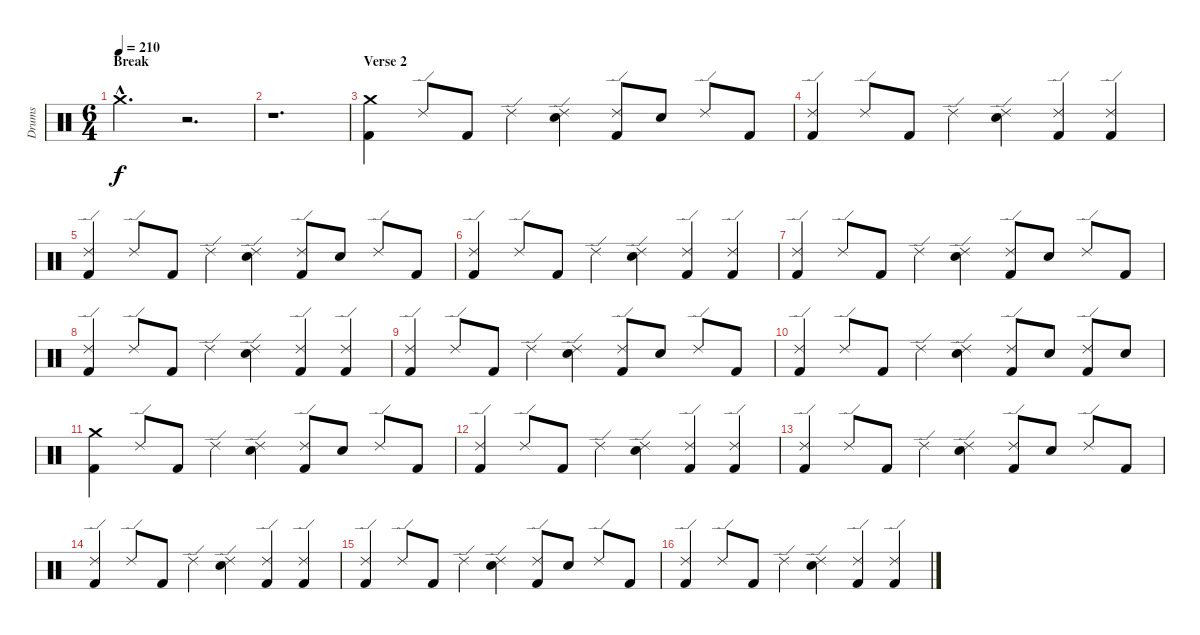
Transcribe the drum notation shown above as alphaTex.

\track ("Drums" "Drums") {instrument percussion}
\staff {score}
\articulation defaults
\ts (6 4)
\section ("" "Break")
\tempo 210
\clef neutral
\ks c "Crash medium (hit)"{hac}.2{d dy f}
r.2{d} |
r.1{d} |
\section ("" "Verse 2")
("Crash medium (hit)" "Kick (hit) 2").4 "Ride (edge) 2".8 "Kick (hit) 2".8 "Ride (edge) 2".4 ("Ride (edge) 2" "Electric Snare (hit)").4 ("Ride (edge) 2" "Kick (hit) 2").8 "Electric Snare (hit)".8 "Ride (edge) 2".8 "Kick (hit) 2".8 |
("Ride (edge) 2" "Kick (hit) 2").4 "Ride (edge) 2".8 "Kick (hit) 2".8 "Ride (edge) 2".4 ("Ride (edge) 2" "Electric Snare (hit)").4 ("Ride (edge) 2" "Kick (hit) 2").4 ("Ride (edge) 2" "Kick (hit) 2").4 |
("Ride (edge) 2" "Kick (hit) 2").4 "Ride (edge) 2".8 "Kick (hit) 2".8 "Ride (edge) 2".4 ("Ride (edge) 2" "Electric Snare (hit)").4 ("Ride (edge) 2" "Kick (hit) 2").8 "Electric Snare (hit)".8 "Ride (edge) 2".8 "Kick (hit) 2".8 |
("Ride (edge) 2" "Kick (hit) 2").4 "Ride (edge) 2".8 "Kick (hit) 2".8 "Ride (edge) 2".4 ("Ride (edge) 2" "Electric Snare (hit)").4 ("Ride (edge) 2" "Kick (hit) 2").4 ("Ride (edge) 2" "Kick (hit) 2").4 |
("Ride (edge) 2" "Kick (hit) 2").4 "Ride (edge) 2".8 "Kick (hit) 2".8 "Ride (edge) 2".4 ("Ride (edge) 2" "Electric Snare (hit)").4 ("Ride (edge) 2" "Kick (hit) 2").8 "Electric Snare (hit)".8 "Ride (edge) 2".8 "Kick (hit) 2".8 |
("Ride (edge) 2" "Kick (hit) 2").4 "Ride (edge) 2".8 "Kick (hit) 2".8 "Ride (edge) 2".4 ("Ride (edge) 2" "Electric Snare (hit)").4 ("Ride (edge) 2" "Kick (hit) 2").4 ("Ride (edge) 2" "Kick (hit) 2").4 |
("Ride (edge) 2" "Kick (hit) 2").4 "Ride (edge) 2".8 "Kick (hit) 2".8 "Ride (edge) 2".4 ("Ride (edge) 2" "Electric Snare (hit)").4 ("Ride (edge) 2" "Kick (hit) 2").8 "Electric Snare (hit)".8 "Ride (edge) 2".8 "Kick (hit) 2".8 |
("Ride (edge) 2" "Kick (hit) 2").4 "Ride (edge) 2".8 "Kick (hit) 2".8 "Ride (edge) 2".4 ("Ride (edge) 2" "Electric Snare (hit)").4 ("Ride (edge) 2" "Kick (hit) 2").8 "Electric Snare (hit)".8 ("Ride (edge) 2" "Kick (hit) 2").8 "Electric Snare (hit)".8 |
("Crash medium (hit)" "Kick (hit) 2").4 "Ride (edge) 2".8 "Kick (hit) 2".8 "Ride (edge) 2".4 ("Ride (edge) 2" "Electric Snare (hit)").4 ("Ride (edge) 2" "Kick (hit) 2").8 "Electric Snare (hit)".8 "Ride (edge) 2".8 "Kick (hit) 2".8 |
("Ride (edge) 2" "Kick (hit) 2").4 "Ride (edge) 2".8 "Kick (hit) 2".8 "Ride (edge) 2".4 ("Ride (edge) 2" "Electric Snare (hit)").4 ("Ride (edge) 2" "Kick (hit) 2").4 ("Ride (edge) 2" "Kick (hit) 2").4 |
("Ride (edge) 2" "Kick (hit) 2").4 "Ride (edge) 2".8 "Kick (hit) 2".8 "Ride (edge) 2".4 ("Ride (edge) 2" "Electric Snare (hit)").4 ("Ride (edge) 2" "Kick (hit) 2").8 "Electric Snare (hit)".8 "Ride (edge) 2".8 "Kick (hit) 2".8 |
("Ride (edge) 2" "Kick (hit) 2").4 "Ride (edge) 2".8 "Kick (hit) 2".8 "Ride (edge) 2".4 ("Ride (edge) 2" "Electric Snare (hit)").4 ("Ride (edge) 2" "Kick (hit) 2").4 ("Ride (edge) 2" "Kick (hit) 2").4 |
("Ride (edge) 2" "Kick (hit) 2").4 "Ride (edge) 2".8 "Kick (hit) 2".8 "Ride (edge) 2".4 ("Ride (edge) 2" "Electric Snare (hit)").4 ("Ride (edge) 2" "Kick (hit) 2").8 "Electric Snare (hit)".8 "Ride (edge) 2".8 "Kick (hit) 2".8 |
("Ride (edge) 2" "Kick (hit) 2").4 "Ride (edge) 2".8 "Kick (hit) 2".8 "Ride (edge) 2".4 ("Ride (edge) 2" "Electric Snare (hit)").4 ("Ride (edge) 2" "Kick (hit) 2").4 ("Ride (edge) 2" "Kick (hit) 2").4
